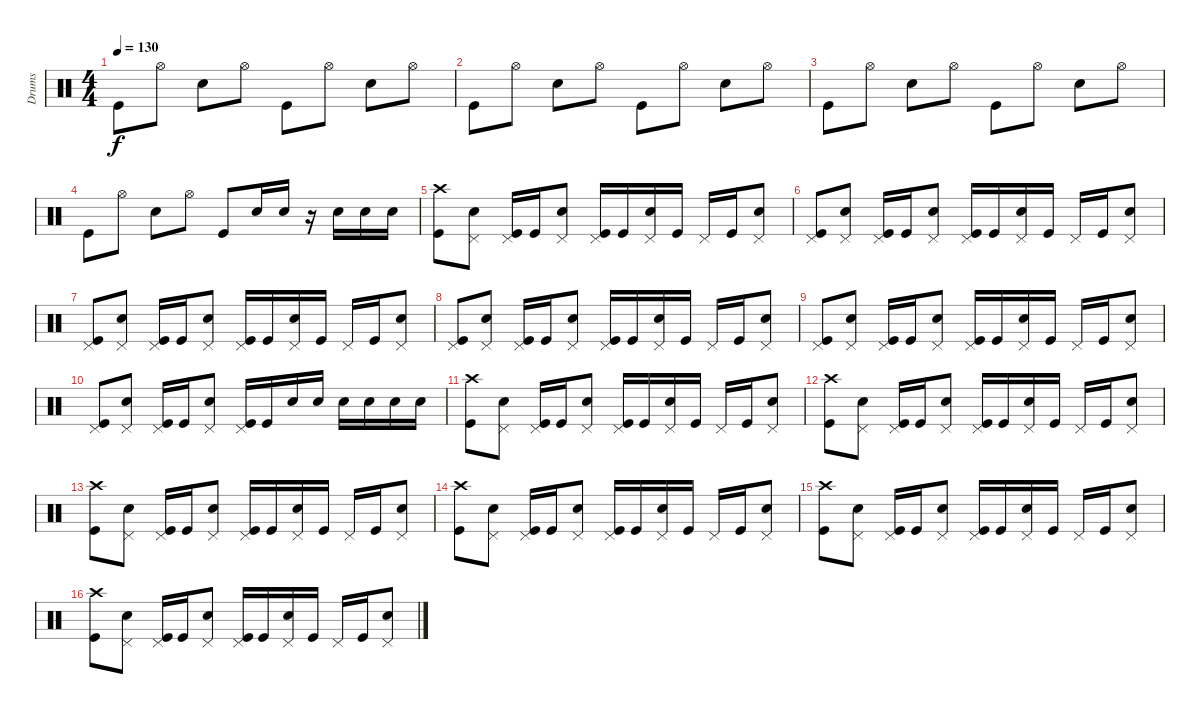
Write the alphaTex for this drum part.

\track ("Drums" "Drums") {instrument percussion}
\staff {score}
\articulation defaults
\ts (4 4)
\tempo 130
\clef neutral
\ks c "Kick (hit)".8{dy f} "Hi-Hat (open)".8 "Electric Snare (hit)".8 "Hi-Hat (open)".8 "Kick (hit)".8 "Hi-Hat (open)".8 "Electric Snare (hit)".8 "Hi-Hat (open)".8
|
"Kick (hit)".8 "Hi-Hat (open)".8 "Electric Snare (hit)".8 "Hi-Hat (open)".8 "Kick (hit)".8 "Hi-Hat (open)".8 "Electric Snare (hit)".8 "Hi-Hat (open)".8 |
"Kick (hit)".8 "Hi-Hat (open)".8 "Electric Snare (hit)".8 "Hi-Hat (open)".8 "Kick (hit)".8 "Hi-Hat (open)".8 "Electric Snare (hit)".8 "Hi-Hat (open)".8 |
"Kick (hit)".8 "Hi-Hat (open)".8 "Electric Snare (hit)".8 "Hi-Hat (open)".8 "Kick (hit)".8 "Electric Snare (hit)".16 "Electric Snare (hit)".16 r.16 "Electric Snare (hit)".16 "Electric Snare (hit)".16 "Electric Snare (hit)".16 |
("Crash high (hit)" "Kick (hit)").8 ("Pedal Hi-Hat (hit)" "Electric Snare (hit)").8 ("Pedal Hi-Hat (hit)" "Kick (hit)").16 "Kick (hit)".16 ("Pedal Hi-Hat (hit)" "Electric Snare (hit)").8 ("Pedal Hi-Hat (hit)" "Kick (hit)").16 "Kick (hit)".16 ("Pedal Hi-Hat (hit)" "Electric Snare (hit)").16 "Kick (hit)".16 "Pedal Hi-Hat (hit)".16 "Kick (hit)".16 ("Pedal Hi-Hat (hit)" "Electric Snare (hit)").8 |
("Pedal Hi-Hat (hit)" "Kick (hit)").8 ("Pedal Hi-Hat (hit)" "Electric Snare (hit)").8 ("Pedal Hi-Hat (hit)" "Kick (hit)").16 "Kick (hit)".16 ("Pedal Hi-Hat (hit)" "Electric Snare (hit)").8 ("Pedal Hi-Hat (hit)" "Kick (hit)").16 "Kick (hit)".16 ("Pedal Hi-Hat (hit)" "Electric Snare (hit)").16 "Kick (hit)".16 "Pedal Hi-Hat (hit)".16 "Kick (hit)".16 ("Pedal Hi-Hat (hit)" "Electric Snare (hit)").8 |
("Pedal Hi-Hat (hit)" "Kick (hit)").8 ("Pedal Hi-Hat (hit)" "Electric Snare (hit)").8 ("Pedal Hi-Hat (hit)" "Kick (hit)").16 "Kick (hit)".16 ("Pedal Hi-Hat (hit)" "Electric Snare (hit)").8 ("Pedal Hi-Hat (hit)" "Kick (hit)").16 "Kick (hit)".16 ("Pedal Hi-Hat (hit)" "Electric Snare (hit)").16 "Kick (hit)".16 "Pedal Hi-Hat (hit)".16 "Kick (hit)".16 ("Pedal Hi-Hat (hit)" "Electric Snare (hit)").8 |
("Pedal Hi-Hat (hit)" "Kick (hit)").8 ("Pedal Hi-Hat (hit)" "Electric Snare (hit)").8 ("Pedal Hi-Hat (hit)" "Kick (hit)").16 "Kick (hit)".16 ("Pedal Hi-Hat (hit)" "Electric Snare (hit)").8 ("Pedal Hi-Hat (hit)" "Kick (hit)").16 "Kick (hit)".16 ("Pedal Hi-Hat (hit)" "Electric Snare (hit)").16 "Kick (hit)".16 "Pedal Hi-Hat (hit)".16 "Kick (hit)".16 ("Pedal Hi-Hat (hit)" "Electric Snare (hit)").8 |
("Pedal Hi-Hat (hit)" "Kick (hit)").8 ("Pedal Hi-Hat (hit)" "Electric Snare (hit)").8 ("Pedal Hi-Hat (hit)" "Kick (hit)").16 "Kick (hit)".16 ("Pedal Hi-Hat (hit)" "Electric Snare (hit)").8 ("Pedal Hi-Hat (hit)" "Kick (hit)").16 "Kick (hit)".16 ("Pedal Hi-Hat (hit)" "Electric Snare (hit)").16 "Kick (hit)".16 "Pedal Hi-Hat (hit)".16 "Kick (hit)".16 ("Pedal Hi-Hat (hit)" "Electric Snare (hit)").8 |
("Pedal Hi-Hat (hit)" "Kick (hit)").8 ("Pedal Hi-Hat (hit)" "Electric Snare (hit)").8 ("Pedal Hi-Hat (hit)" "Kick (hit)").16 "Kick (hit)".16 ("Pedal Hi-Hat (hit)" "Electric Snare (hit)").8 ("Pedal Hi-Hat (hit)" "Kick (hit)").16 "Kick (hit)".16 "Electric Snare (hit)".16 "Electric Snare (hit)".16 "Electric Snare (hit)".16 "Electric Snare (hit)".16 "Electric Snare (hit)".16 "Electric Snare (hit)".16 |
("Crash high (hit)" "Kick (hit)").8 ("Pedal Hi-Hat (hit)" "Electric Snare (hit)").8 ("Pedal Hi-Hat (hit)" "Kick (hit)").16 "Kick (hit)".16 ("Pedal Hi-Hat (hit)" "Electric Snare (hit)").8 ("Pedal Hi-Hat (hit)" "Kick (hit)").16 "Kick (hit)".16 ("Pedal Hi-Hat (hit)" "Electric Snare (hit)").16 "Kick (hit)".16 "Pedal Hi-Hat (hit)".16 "Kick (hit)".16 ("Pedal Hi-Hat (hit)" "Electric Snare (hit)").8 |
("Crash high (hit)" "Kick (hit)").8 ("Pedal Hi-Hat (hit)" "Electric Snare (hit)").8 ("Pedal Hi-Hat (hit)" "Kick (hit)").16 "Kick (hit)".16 ("Pedal Hi-Hat (hit)" "Electric Snare (hit)").8 ("Pedal Hi-Hat (hit)" "Kick (hit)").16 "Kick (hit)".16 ("Pedal Hi-Hat (hit)" "Electric Snare (hit)").16 "Kick (hit)".16 "Pedal Hi-Hat (hit)".16 "Kick (hit)".16 ("Pedal Hi-Hat (hit)" "Electric Snare (hit)").8 |
("Crash high (hit)" "Kick (hit)").8 ("Pedal Hi-Hat (hit)" "Electric Snare (hit)").8 ("Pedal Hi-Hat (hit)" "Kick (hit)").16 "Kick (hit)".16 ("Pedal Hi-Hat (hit)" "Electric Snare (hit)").8 ("Pedal Hi-Hat (hit)" "Kick (hit)").16 "Kick (hit)".16 ("Pedal Hi-Hat (hit)" "Electric Snare (hit)").16 "Kick (hit)".16 "Pedal Hi-Hat (hit)".16 "Kick (hit)".16 ("Pedal Hi-Hat (hit)" "Electric Snare (hit)").8 |
("Crash high (hit)" "Kick (hit)").8 ("Pedal Hi-Hat (hit)" "Electric Snare (hit)").8 ("Pedal Hi-Hat (hit)" "Kick (hit)").16 "Kick (hit)".16 ("Pedal Hi-Hat (hit)" "Electric Snare (hit)").8 ("Pedal Hi-Hat (hit)" "Kick (hit)").16 "Kick (hit)".16 ("Pedal Hi-Hat (hit)" "Electric Snare (hit)").16 "Kick (hit)".16 "Pedal Hi-Hat (hit)".16 "Kick (hit)".16 ("Pedal Hi-Hat (hit)" "Electric Snare (hit)").8 |
("Crash high (hit)" "Kick (hit)").8 ("Pedal Hi-Hat (hit)" "Electric Snare (hit)").8 ("Pedal Hi-Hat (hit)" "Kick (hit)").16 "Kick (hit)".16 ("Pedal Hi-Hat (hit)" "Electric Snare (hit)").8 ("Pedal Hi-Hat (hit)" "Kick (hit)").16 "Kick (hit)".16 ("Pedal Hi-Hat (hit)" "Electric Snare (hit)").16 "Kick (hit)".16 "Pedal Hi-Hat (hit)".16 "Kick (hit)".16 ("Pedal Hi-Hat (hit)" "Electric Snare (hit)").8 |
("Crash high (hit)" "Kick (hit)").8 ("Pedal Hi-Hat (hit)" "Electric Snare (hit)").8 ("Pedal Hi-Hat (hit)" "Kick (hit)").16 "Kick (hit)".16 ("Pedal Hi-Hat (hit)" "Electric Snare (hit)").8 ("Pedal Hi-Hat (hit)" "Kick (hit)").16 "Kick (hit)".16 ("Pedal Hi-Hat (hit)" "Electric Snare (hit)").16 "Kick (hit)".16 "Pedal Hi-Hat (hit)".16 "Kick (hit)".16 ("Pedal Hi-Hat (hit)" "Electric Snare (hit)").8
